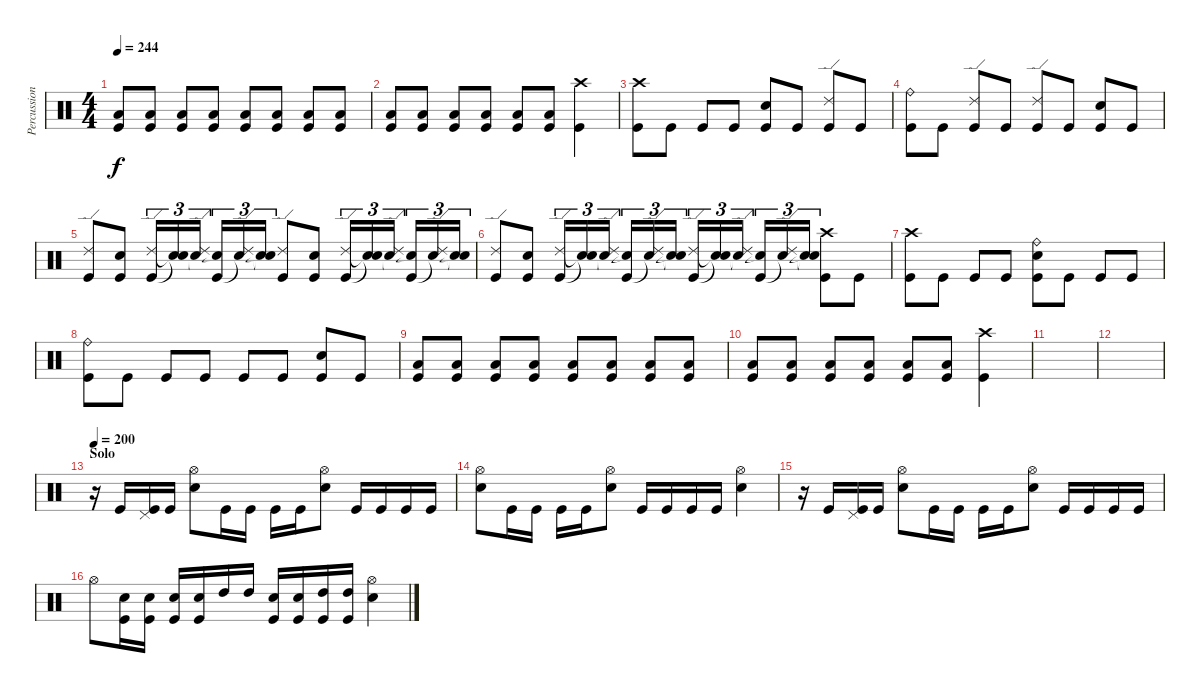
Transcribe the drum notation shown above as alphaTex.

\track ("Percussion" "Percussion") {instrument percussion}
\staff {score}
\articulation defaults
\ts (4 4)
\tempo 244
\clef neutral
\ks c
("Low Tom (hit)" "Kick (hit)").8{dy f} ("Low Tom (hit)" "Kick (hit)").8 ("Low Tom (hit)" "Kick (hit)").8 ("Low Tom (hit)" "Kick (hit)").8 ("Low Tom (hit)" "Kick (hit)").8 ("Low Tom (hit)" "Kick (hit)").8 ("Low Tom (hit)" "Kick (hit)").8 ("Low Tom (hit)" "Kick (hit)").8 |
("Low Tom (hit)" "Kick (hit)").8 ("Low Tom (hit)" "Kick (hit)").8 ("Low Tom (hit)" "Kick (hit)").8 ("Low Tom (hit)" "Kick (hit)").8 ("Low Tom (hit)" "Kick (hit)").8 ("Low Tom (hit)" "Kick (hit)").8 ("Crash high (hit)" "Kick (hit)").4 |
("Crash high (hit)" "Kick (hit)").8 "Kick (hit)".8 "Kick (hit)".8 "Kick (hit)".8 ("Snare (hit) 2" "Kick (hit)").8 "Kick (hit)".8 ("Ride (edge) 2" "Kick (hit)").8 "Kick (hit)".8 |
("Ride (bell)" "Kick (hit)").8 "Kick (hit)".8 ("Ride (edge) 2" "Kick (hit)").8 "Kick (hit)".8 ("Ride (edge) 2" "Kick (hit)").8 "Kick (hit)".8 ("Snare (hit) 2" "Kick (hit)").8 "Kick (hit)".8 |
("Ride (edge) 2" "Kick (hit)").8 ("Snare (hit) 2" "Kick (hit)").8 ("Ride (edge) 2" "Kick (hit)").16{tu (3 2)} ("Snare (hit)"{t} "Snare (hit)"{t}).16{tu (3 2)} ("Ride (edge) 2" "Snare (hit)"{t}).16{tu (3 2)} ("Snare (hit)"{t} "Kick (hit)").16{tu (3 2)} ("Ride (edge) 2" "Snare (hit)"{t}).16{tu (3 2)} ("Snare (hit)"{t} "Snare (hit)"{t}).16{tu (3 2)} ("Ride (edge) 2" "Kick (hit)").8 ("Snare (hit) 2" "Kick (hit)").8 ("Ride (edge) 2" "Kick (hit)").16{tu (3 2)} ("Snare (hit)"{t} "Snare (hit)"{t}).16{tu (3 2)} ("Ride (edge) 2" "Snare (hit)"{t}).16{tu (3 2)} ("Snare (hit)"{t} "Kick (hit)").16{tu (3 2)} ("Ride (edge) 2" "Snare (hit)"{t}).16{tu (3 2)} ("Snare (hit)"{t} "Snare (hit)"{t}).16{tu (3 2)} |
("Ride (edge) 2" "Kick (hit)").8 ("Snare (hit) 2" "Kick (hit)").8 ("Ride (edge) 2" "Kick (hit)").16{tu (3 2)} ("Snare (hit)"{t} "Snare (hit)"{t}).16{tu (3 2)} ("Ride (edge) 2" "Snare (hit)"{t}).16{tu (3 2)} ("Snare (hit)"{t} "Kick (hit)").16{tu (3 2)} ("Ride (edge) 2" "Snare (hit)"{t}).16{tu (3 2)} ("Snare (hit)"{t} "Snare (hit)"{t}).16{tu (3 2)} ("Ride (edge) 2" "Kick (hit)").16{tu (3 2)} ("Snare (hit)"{t} "Snare (hit)"{t}).16{tu (3 2)} ("Ride (edge) 2" "Snare (hit)"{t}).16{tu (3 2)} ("Snare (hit)"{t} "Kick (hit)").16{tu (3 2)} ("Ride (edge) 2" "Snare (hit)"{t}).16{tu (3 2)} ("Snare (hit)"{t} "Snare (hit)"{t}).16{tu (3 2)} ("Crash high (hit)" "Kick (hit)").8 "Kick (hit)".8 |
("Crash high (hit)" "Kick (hit)").8 "Kick (hit)".8 "Kick (hit)".8 "Kick (hit)".8 ("Ride (bell)" "Snare (hit) 2" "Kick (hit)").8 "Kick (hit)".8 "Kick (hit)".8 "Kick (hit)".8 |
("Ride (bell)" "Kick (hit)").8 "Kick (hit)".8 "Kick (hit)".8 "Kick (hit)".8 "Kick (hit)".8 "Kick (hit)".8 ("Snare (hit) 2" "Kick (hit)").8 "Kick (hit)".8 |
("Low Tom (hit)" "Kick (hit)").8 ("Low Tom (hit)" "Kick (hit)").8 ("Low Tom (hit)" "Kick (hit)").8 ("Low Tom (hit)" "Kick (hit)").8 ("Low Tom (hit)" "Kick (hit)").8 ("Low Tom (hit)" "Kick (hit)").8 ("Low Tom (hit)" "Kick (hit)").8 ("Low Tom (hit)" "Kick (hit)").8 |
("Low Tom (hit)" "Kick (hit)").8 ("Low Tom (hit)" "Kick (hit)").8 ("Low Tom (hit)" "Kick (hit)").8 ("Low Tom (hit)" "Kick (hit)").8 ("Low Tom (hit)" "Kick (hit)").8 ("Low Tom (hit)" "Kick (hit)").8 ("Crash high (hit)" "Kick (hit)").4 |
|
|
\section ("" "Solo")
\tempo 200
r.16 "Kick (hit)".16 ("Pedal Hi-Hat (hit)" "Kick (hit)").16 "Kick (hit)".16 ("Snare (hit) 2" "Hi-Hat (open)").8 "Kick (hit)".16 "Kick (hit)".16 "Kick (hit)".16 "Kick (hit)".16 ("Snare (hit) 2" "Hi-Hat (open)").8 "Kick (hit)".16 "Kick (hit)".16 "Kick (hit)".16 "Kick (hit)".16 |
("Snare (hit) 2" "Hi-Hat (open)").8 "Kick (hit)".16 "Kick (hit)".16 "Kick (hit)".16 "Kick (hit)".16 ("Snare (hit) 2" "Hi-Hat (open)").8 "Kick (hit)".16 "Kick (hit)".16 "Kick (hit)".16 "Kick (hit)".16 ("Snare (hit) 2" "Hi-Hat (open)").4 |
r.16 "Kick (hit)".16 ("Pedal Hi-Hat (hit)" "Kick (hit)").16 "Kick (hit)".16 ("Snare (hit) 2" "Hi-Hat (open)").8 "Kick (hit)".16 "Kick (hit)".16 "Kick (hit)".16 "Kick (hit)".16 ("Snare (hit) 2" "Hi-Hat (open)").8 "Kick (hit)".16 "Kick (hit)".16 "Kick (hit)".16 "Kick (hit)".16 |
"Hi-Hat (open)".8 ("Snare (hit) 2" "Kick (hit)").16 ("Snare (hit) 2" "Kick (hit)").16 ("Snare (hit) 2" "Kick (hit)").16 ("Snare (hit) 2" "Kick (hit)").16 "High Tom (hit)".16 "High Tom (hit)".16 ("Snare (hit) 2" "Kick (hit)").16 ("Snare (hit) 2" "Kick (hit)").16 ("High Tom (hit)" "Kick (hit)").16 ("High Tom (hit)" "Kick (hit)").16 ("Snare (hit) 2" "Hi-Hat (open)").4
